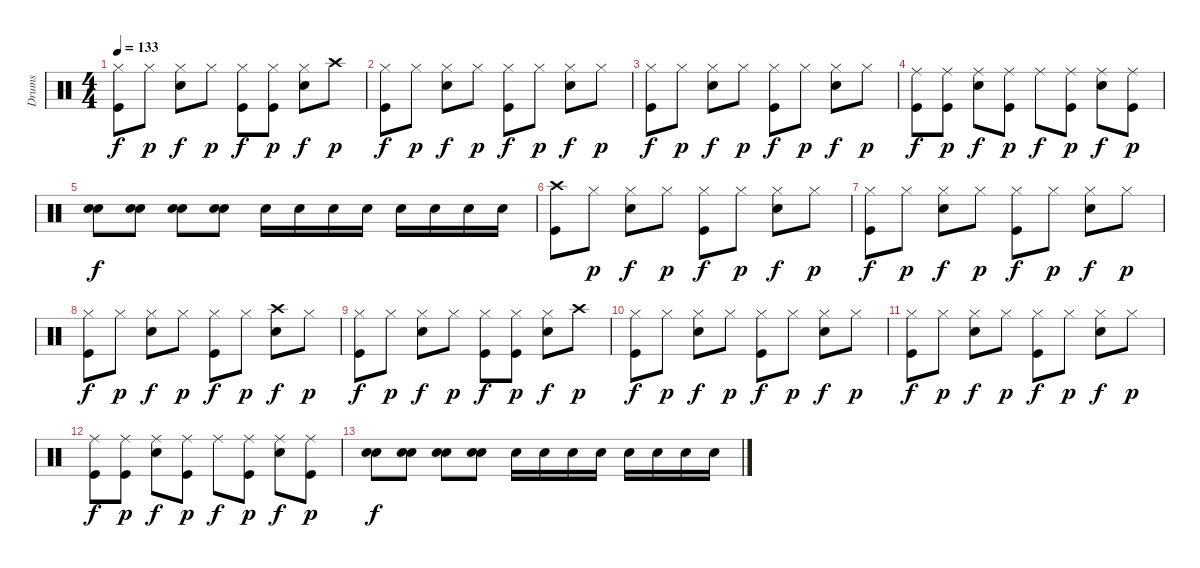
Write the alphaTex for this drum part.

\track ("Drums" "Drums") {instrument percussion}
\staff {score}
\articulation defaults
\ts (4 4)
\tempo 133
\clef neutral
\ks c
("Hi-Hat (closed)" "Kick (hit)").8{dy f volume 10} "Hi-Hat (closed)".8{dy p} ("Hi-Hat (closed)" "Snare (hit) 2").8{dy f} "Hi-Hat (closed)".8{dy p} ("Hi-Hat (closed)" "Kick (hit)").8{dy f} ("Hi-Hat (closed)" "Kick (hit)").8{dy p} ("Hi-Hat (closed)" "Snare (hit) 2").8{dy f} "Crash high (hit)".8{dy p} |
("Hi-Hat (closed)" "Kick (hit)").8{dy f} "Hi-Hat (closed)".8{dy p} ("Hi-Hat (closed)" "Snare (hit) 2").8{dy f} "Hi-Hat (closed)".8{dy p} ("Hi-Hat (closed)" "Kick (hit)").8{dy f} "Hi-Hat (closed)".8{dy p} ("Hi-Hat (closed)" "Snare (hit) 2").8{dy f} "Hi-Hat (closed)".8{dy p} |
("Hi-Hat (closed)" "Kick (hit)").8{dy f} "Hi-Hat (closed)".8{dy p} ("Hi-Hat (closed)" "Snare (hit) 2").8{dy f} "Hi-Hat (closed)".8{dy p} ("Hi-Hat (closed)" "Kick (hit)").8{dy f} "Hi-Hat (closed)".8{dy p} ("Hi-Hat (closed)" "Snare (hit) 2").8{dy f} "Hi-Hat (closed)".8{dy p} |
("Ride (middle)" "Kick (hit)").8{dy f} ("Ride (middle)" "Kick (hit)").8{dy p} ("Ride (middle)" "Snare (hit) 2").8{dy f} ("Ride (middle)" "Kick (hit)").8{dy p} "Ride (middle)".8{dy f} ("Ride (middle)" "Kick (hit)").8{dy p} ("Ride (middle)" "Snare (hit) 2").8{dy f} ("Ride (middle)" "Kick (hit)").8{dy p} |
("Snare (hit) 2" "Electric Snare (hit)").8{dy f} ("Snare (hit) 2" "Electric Snare (hit)").8 ("Snare (hit) 2" "Electric Snare (hit)").8 ("Snare (hit) 2" "Electric Snare (hit)").8 "Snare (hit) 2".16 "Snare (hit) 2".16 "Snare (hit) 2".16 "Snare (hit) 2".16 "Snare (hit) 2".16 "Snare (hit) 2".16 "Snare (hit) 2".16 "Snare (hit) 2".16 |
("Crash high (hit)" "Kick (hit)").8{volume 6} "Hi-Hat (closed)".8{dy p} ("Hi-Hat (closed)" "Snare (hit) 2").8{dy f} "Hi-Hat (closed)".8{dy p} ("Hi-Hat (closed)" "Kick (hit)").8{dy f} "Hi-Hat (closed)".8{dy p} ("Hi-Hat (closed)" "Snare (hit) 2").8{dy f} "Hi-Hat (closed)".8{dy p} |
("Hi-Hat (closed)" "Kick (hit)").8{dy f} "Hi-Hat (closed)".8{dy p} ("Hi-Hat (closed)" "Snare (hit) 2").8{dy f} "Hi-Hat (closed)".8{dy p} ("Hi-Hat (closed)" "Kick (hit)").8{dy f} "Hi-Hat (closed)".8{dy p} ("Hi-Hat (closed)" "Snare (hit) 2").8{dy f} "Hi-Hat (closed)".8{dy p} |
("Hi-Hat (closed)" "Kick (hit)").8{dy f} "Hi-Hat (closed)".8{dy p} ("Hi-Hat (closed)" "Snare (hit) 2").8{dy f} "Hi-Hat (closed)".8{dy p} ("Hi-Hat (closed)" "Kick (hit)").8{dy f} "Hi-Hat (closed)".8{dy p} ("Crash high (hit)" "Snare (hit) 2").8{dy f} "Hi-Hat (closed)".8{dy p} |
("Hi-Hat (closed)" "Kick (hit)").8{dy f} "Hi-Hat (closed)".8{dy p} ("Hi-Hat (closed)" "Snare (hit) 2").8{dy f} "Hi-Hat (closed)".8{dy p} ("Hi-Hat (closed)" "Kick (hit)").8{dy f} ("Hi-Hat (closed)" "Kick (hit)").8{dy p} ("Hi-Hat (closed)" "Snare (hit) 2").8{dy f} "Crash high (hit)".8{dy p} |
("Hi-Hat (closed)" "Kick (hit)").8{dy f volume 0} "Hi-Hat (closed)".8{dy p} ("Hi-Hat (closed)" "Snare (hit) 2").8{dy f} "Hi-Hat (closed)".8{dy p} ("Hi-Hat (closed)" "Kick (hit)").8{dy f} "Hi-Hat (closed)".8{dy p} ("Hi-Hat (closed)" "Snare (hit) 2").8{dy f} "Hi-Hat (closed)".8{dy p} |
("Hi-Hat (closed)" "Kick (hit)").8{dy f} "Hi-Hat (closed)".8{dy p} ("Hi-Hat (closed)" "Snare (hit) 2").8{dy f} "Hi-Hat (closed)".8{dy p} ("Hi-Hat (closed)" "Kick (hit)").8{dy f} "Hi-Hat (closed)".8{dy p} ("Hi-Hat (closed)" "Snare (hit) 2").8{dy f} "Hi-Hat (closed)".8{dy p} |
("Ride (middle)" "Kick (hit)").8{dy f} ("Ride (middle)" "Kick (hit)").8{dy p} ("Ride (middle)" "Snare (hit) 2").8{dy f} ("Ride (middle)" "Kick (hit)").8{dy p} "Ride (middle)".8{dy f} ("Ride (middle)" "Kick (hit)").8{dy p} ("Ride (middle)" "Snare (hit) 2").8{dy f} ("Ride (middle)" "Kick (hit)").8{dy p} |
("Snare (hit) 2" "Electric Snare (hit)").8{dy f} ("Snare (hit) 2" "Electric Snare (hit)").8 ("Snare (hit) 2" "Electric Snare (hit)").8 ("Snare (hit) 2" "Electric Snare (hit)").8 "Snare (hit) 2".16 "Snare (hit) 2".16 "Snare (hit) 2".16 "Snare (hit) 2".16 "Snare (hit) 2".16 "Snare (hit) 2".16 "Snare (hit) 2".16 "Snare (hit) 2".16
